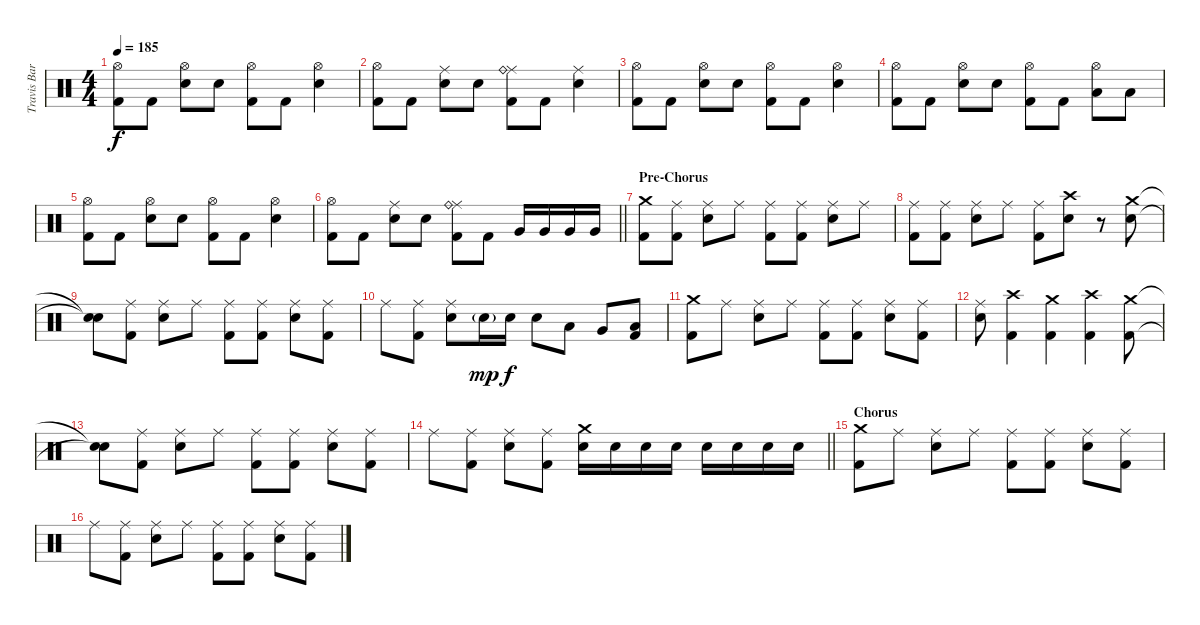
\track ("Travis Barker - Drums" "Travis Bar") {instrument percussion}
\staff {score}
\articulation defaults
\ts (4 4)
\tempo 185
\clef neutral
\ks c
("Hi-Hat (open)" "Kick (hit) 2").8{dy f} "Kick (hit) 2".8 ("Hi-Hat (open)" "Electric Snare (hit)").8 "Electric Snare (hit)".8 ("Hi-Hat (open)" "Kick (hit) 2").8 "Kick (hit) 2".8 ("Hi-Hat (open)" "Electric Snare (hit)").4 |
("Hi-Hat (open)" "Kick (hit) 2").8 "Kick (hit) 2".8 ("Ride (middle)" "Electric Snare (hit)").8 "Electric Snare (hit)".8 ("Ride (middle)" "Ride (bell)" "Kick (hit) 2").8 "Kick (hit) 2".8 ("Ride (middle)" "Electric Snare (hit)").4 |
("Hi-Hat (open)" "Kick (hit) 2").8 "Kick (hit) 2".8 ("Hi-Hat (open)" "Electric Snare (hit)").8 "Electric Snare (hit)".8 ("Hi-Hat (open)" "Kick (hit) 2").8 "Kick (hit) 2".8 ("Hi-Hat (open)" "Electric Snare (hit)").4 |
("Hi-Hat (open)" "Kick (hit) 2").8 "Kick (hit) 2".8 ("Hi-Hat (open)" "Electric Snare (hit)").8 "Electric Snare (hit)".8 ("Hi-Hat (open)" "Kick (hit) 2").8 "Kick (hit) 2".8 ("Hi-Hat (open)" "Low Tom (hit)").8 "Low Tom (hit)".8 |
("Hi-Hat (open)" "Kick (hit) 2").8 "Kick (hit) 2".8 ("Hi-Hat (open)" "Electric Snare (hit)").8 "Electric Snare (hit)".8 ("Hi-Hat (open)" "Kick (hit) 2").8 "Kick (hit) 2".8 ("Hi-Hat (open)" "Electric Snare (hit)").4 |
\barLineRight lightlight
("Hi-Hat (open)" "Kick (hit) 2").8 "Kick (hit) 2".8 ("Ride (middle)" "Electric Snare (hit)").8 "Electric Snare (hit)".8 ("Ride (middle)" "Ride (bell)" "Kick (hit) 2").8 "Kick (hit) 2".8 "Very Low Tom (hit)".16 "Very Low Tom (hit)".16 "Very Low Tom (hit)".16 "Very Low Tom (hit)".16 |
\section ("" "Pre-Chorus")
("Crash medium (hit)" "Kick (hit) 2").8 ("Ride (middle)" "Kick (hit) 2").8 ("Ride (middle)" "Electric Snare (hit)").8 "Ride (middle)".8 ("Ride (middle)" "Kick (hit) 2").8 ("Ride (middle)" "Kick (hit) 2").8 ("Ride (middle)" "Electric Snare (hit)").8 "Ride (middle)".8 |
("Ride (middle)" "Kick (hit) 2").8 ("Ride (middle)" "Kick (hit) 2").8 ("Ride (middle)" "Electric Snare (hit)").8 "Ride (middle)".8 ("Ride (middle)" "Kick (hit) 2").8 ("Crash high (hit)" "Electric Snare (hit)").8 r.8 ("Crash medium (hit)" "Electric Snare (hit)").8 |
("Snare (hit)"{t} "Snare (hit)"{t}).8 ("Ride (middle)" "Kick (hit) 2").8 ("Ride (middle)" "Electric Snare (hit)").8 "Ride (middle)".8 ("Ride (middle)" "Kick (hit) 2").8 ("Ride (middle)" "Kick (hit) 2").8 ("Ride (middle)" "Electric Snare (hit)").8 ("Ride (middle)" "Kick (hit) 2").8 |
"Ride (middle)".8 ("Ride (middle)" "Kick (hit) 2").8 ("Ride (middle)" "Electric Snare (hit)").8 "Electric Snare (hit)"{g}.16{dy mp} "Electric Snare (hit)".16{dy f} "Electric Snare (hit)".8 "Low Tom (hit)".8 "Very Low Tom (hit)".8 ("Low Floor Tom (hit)" "Kick (hit) 2").8 |
("Crash medium (hit)" "Kick (hit) 2").8 "Ride (middle)".8 ("Ride (middle)" "Electric Snare (hit)").8 "Ride (middle)".8 ("Ride (middle)" "Kick (hit) 2").8 ("Ride (middle)" "Kick (hit) 2").8 ("Ride (middle)" "Electric Snare (hit)").8 ("Ride (middle)" "Kick (hit) 2").8 |
("Ride (middle)" "Electric Snare (hit)").8 ("Crash high (hit)" "Kick (hit) 2").4 ("Crash medium (hit)" "Kick (hit) 2").4 ("Crash high (hit)" "Kick (hit) 2").4 ("Crash medium (hit)" "Kick (hit) 2").8 |
("Snare (hit)"{t} "Snare (hit)"{t}).8 ("Ride (middle)" "Kick (hit) 2").8 ("Ride (middle)" "Electric Snare (hit)").8 "Ride (middle)".8 ("Ride (middle)" "Kick (hit) 2").8 ("Ride (middle)" "Kick (hit) 2").8 ("Ride (middle)" "Electric Snare (hit)").8 ("Ride (middle)" "Kick (hit) 2").8 |
\barLineRight lightlight "Ride (middle)".8
("Ride (middle)" "Kick (hit) 2").8 ("Ride (middle)" "Electric Snare (hit)").8 ("Ride (middle)" "Kick (hit) 2").8 ("Crash medium (hit)" "Electric Snare (hit)").16 "Electric Snare (hit)".16 "Electric Snare (hit)".16 "Electric Snare (hit)".16 "Electric Snare (hit)".16 "Electric Snare (hit)".16 "Electric Snare (hit)".16 "Electric Snare (hit)".16 |
\section ("" "Chorus")
("Crash medium (hit)" "Kick (hit) 2").8 "Ride (middle)".8 ("Ride (middle)" "Electric Snare (hit)").8 "Ride (middle)".8 ("Ride (middle)" "Kick (hit) 2").8 ("Ride (middle)" "Kick (hit) 2").8 ("Ride (middle)" "Electric Snare (hit)").8 ("Ride (middle)" "Kick (hit) 2").8 |
"Ride (middle)".8 ("Ride (middle)" "Kick (hit) 2").8 ("Ride (middle)" "Electric Snare (hit)").8 "Ride (middle)".8 ("Ride (middle)" "Kick (hit) 2").8 ("Ride (middle)" "Kick (hit) 2").8 ("Ride (middle)" "Electric Snare (hit)").8 ("Ride (middle)" "Kick (hit) 2").8
